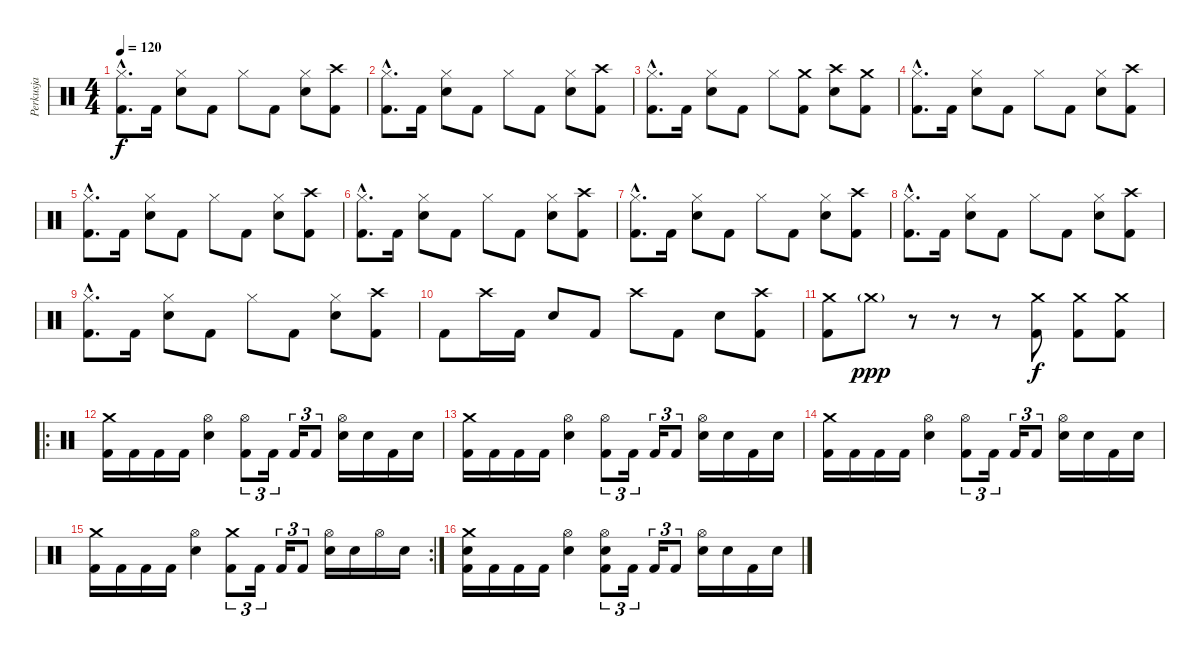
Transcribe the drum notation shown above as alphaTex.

\track ("Perkusja" "Perkusja") {instrument percussion}
\staff {score}
\articulation defaults
\ts (4 4)
\tempo 120
\clef neutral
\ks c
("Hi-Hat (closed)"{hac} "Kick (hit) 2"{hac}).8{d dy f} "Kick (hit) 2".16 ("Hi-Hat (closed)" "Snare (hit) 2").8 "Kick (hit) 2".8 "Hi-Hat (closed)".8 "Kick (hit) 2".8 ("Hi-Hat (closed)" "Snare (hit) 2").8 ("Crash high (hit)" "Kick (hit) 2").8 |
("Hi-Hat (closed)"{hac} "Kick (hit) 2"{hac}).8{d} "Kick (hit) 2".16 ("Hi-Hat (closed)" "Snare (hit) 2").8 "Kick (hit) 2".8 "Hi-Hat (closed)".8 "Kick (hit) 2".8 ("Hi-Hat (closed)" "Snare (hit) 2").8 ("Crash high (hit)" "Kick (hit) 2").8 |
("Hi-Hat (closed)"{hac} "Kick (hit) 2"{hac}).8{d} "Kick (hit) 2".16 ("Hi-Hat (closed)" "Snare (hit) 2").8 "Kick (hit) 2".8 "Hi-Hat (closed)".8 ("Crash medium (hit)" "Kick (hit) 2").8 ("Crash high (hit)" "Snare (hit) 2").8 ("Crash medium (hit)" "Kick (hit) 2").8 |
("Hi-Hat (closed)"{hac} "Kick (hit) 2"{hac}).8{d} "Kick (hit) 2".16 ("Hi-Hat (closed)" "Snare (hit) 2").8 "Kick (hit) 2".8 "Hi-Hat (closed)".8 "Kick (hit) 2".8 ("Hi-Hat (closed)" "Snare (hit) 2").8 ("Crash high (hit)" "Kick (hit) 2").8 |
("Hi-Hat (closed)"{hac} "Kick (hit) 2"{hac}).8{d} "Kick (hit) 2".16 ("Hi-Hat (closed)" "Snare (hit) 2").8 "Kick (hit) 2".8 "Hi-Hat (closed)".8 "Kick (hit) 2".8 ("Hi-Hat (closed)" "Snare (hit) 2").8 ("Crash high (hit)" "Kick (hit) 2").8 |
("Hi-Hat (closed)"{hac} "Kick (hit) 2"{hac}).8{d} "Kick (hit) 2".16 ("Hi-Hat (closed)" "Snare (hit) 2").8 "Kick (hit) 2".8 "Hi-Hat (closed)".8 "Kick (hit) 2".8 ("Hi-Hat (closed)" "Snare (hit) 2").8 ("Crash high (hit)" "Kick (hit) 2").8 |
("Hi-Hat (closed)"{hac} "Kick (hit) 2"{hac}).8{d} "Kick (hit) 2".16 ("Hi-Hat (closed)" "Snare (hit) 2").8 "Kick (hit) 2".8 "Hi-Hat (closed)".8 "Kick (hit) 2".8 ("Hi-Hat (closed)" "Snare (hit) 2").8 ("Crash high (hit)" "Kick (hit) 2").8 |
("Hi-Hat (closed)"{hac} "Kick (hit) 2"{hac}).8{d} "Kick (hit) 2".16 ("Hi-Hat (closed)" "Snare (hit) 2").8 "Kick (hit) 2".8 "Hi-Hat (closed)".8 "Kick (hit) 2".8 ("Hi-Hat (closed)" "Snare (hit) 2").8 ("Crash high (hit)" "Kick (hit) 2").8 |
("Hi-Hat (closed)"{hac} "Kick (hit) 2"{hac}).8{d} "Kick (hit) 2".16 ("Hi-Hat (closed)" "Snare (hit) 2").8 "Kick (hit) 2".8 "Hi-Hat (closed)".8 "Kick (hit) 2".8 ("Hi-Hat (closed)" "Snare (hit) 2").8 ("Crash high (hit)" "Kick (hit) 2").8 |
"Kick (hit) 2".8 "Crash high (hit)".16 "Kick (hit) 2".16 "Snare (hit) 2".8 "Kick (hit) 2".8 "Crash high (hit)".8 "Kick (hit) 2".8 "Snare (hit) 2".8 ("Crash high (hit)" "Kick (hit) 2").8 |
("Crash medium (hit)" "Kick (hit) 2").8 "Crash medium (hit)"{g}.8{dy ppp} r.8 r.8 r.8 ("Crash medium (hit)" "Kick (hit) 2").8{dy f} ("Crash medium (hit)" "Kick (hit) 2").8 ("Crash medium (hit)" "Kick (hit) 2").8 |
\ro
("Crash medium (hit)" "Kick (hit) 2").16 "Kick (hit) 2".16 "Kick (hit) 2".16 "Kick (hit) 2".16 ("Hi-Hat (open)" "Snare (hit) 2").4 ("Hi-Hat (open)" "Kick (hit) 2").8{tu (3 2)} "Kick (hit) 2".16{tu (3 2)} "Kick (hit) 2".16{tu (3 2)} "Kick (hit) 2".8{tu (3 2)} ("Hi-Hat (open)" "Snare (hit) 2").16 "Snare (hit) 2".16 "Kick (hit) 2".16 "Snare (hit) 2".16 |
("Crash medium (hit)" "Kick (hit) 2").16 "Kick (hit) 2".16 "Kick (hit) 2".16 "Kick (hit) 2".16 ("Hi-Hat (open)" "Snare (hit) 2").4 ("Hi-Hat (open)" "Kick (hit) 2").8{tu (3 2)} "Kick (hit) 2".16{tu (3 2)} "Kick (hit) 2".16{tu (3 2)} "Kick (hit) 2".8{tu (3 2)} ("Hi-Hat (open)" "Snare (hit) 2").16 "Snare (hit) 2".16 "Kick (hit) 2".16 "Snare (hit) 2".16 |
("Crash medium (hit)" "Kick (hit) 2").16 "Kick (hit) 2".16 "Kick (hit) 2".16 "Kick (hit) 2".16 ("Hi-Hat (open)" "Snare (hit) 2").4 ("Hi-Hat (open)" "Kick (hit) 2").8{tu (3 2)} "Kick (hit) 2".16{tu (3 2)} "Kick (hit) 2".16{tu (3 2)} "Kick (hit) 2".8{tu (3 2)} ("Hi-Hat (open)" "Snare (hit) 2").16 "Snare (hit) 2".16 "Kick (hit) 2".16 "Snare (hit) 2".16 |
\rc 2
("Crash medium (hit)" "Kick (hit) 2").16 "Kick (hit) 2".16 "Kick (hit) 2".16 "Kick (hit) 2".16 ("Hi-Hat (open)" "Snare (hit) 2").4 ("Crash medium (hit)" "Kick (hit) 2").8{tu (3 2)} "Kick (hit) 2".16{tu (3 2)} "Kick (hit) 2".16{tu (3 2)} "Kick (hit) 2".8{tu (3 2)} ("Hi-Hat (open)" "Snare (hit) 2").16 "Snare (hit) 2".16 "Hi-Hat (open)".16 "Snare (hit) 2".16 |
("Crash medium (hit)" "Snare (hit) 2" "Kick (hit) 2").16 "Kick (hit) 2".16 "Kick (hit) 2".16 "Kick (hit) 2".16 ("Hi-Hat (open)" "Snare (hit) 2").4 ("Hi-Hat (open)" "Snare (hit) 2" "Kick (hit) 2").8{tu (3 2)} "Kick (hit) 2".16{tu (3 2)} "Kick (hit) 2".16{tu (3 2)} "Kick (hit) 2".8{tu (3 2)} ("Hi-Hat (open)" "Snare (hit) 2").16 "Snare (hit) 2".16 "Kick (hit) 2".16 "Snare (hit) 2".16
